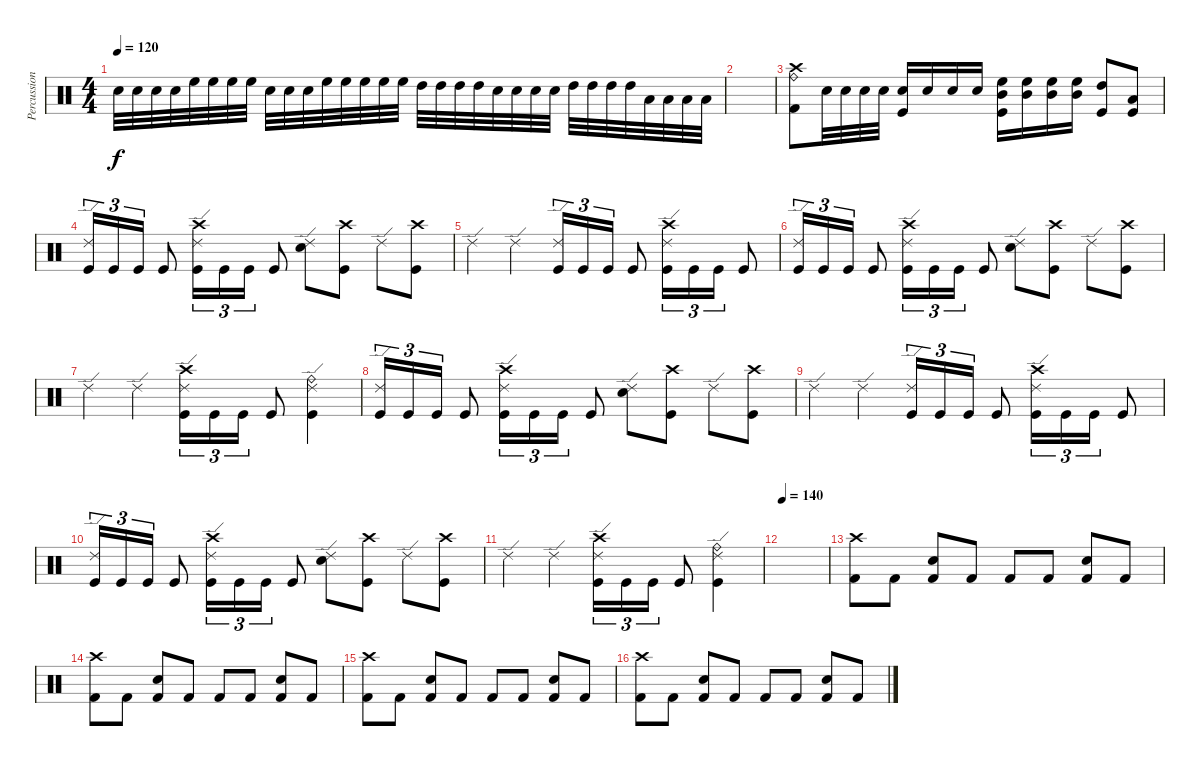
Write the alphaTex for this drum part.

\track ("Percussion" "Percussion") {instrument percussion}
\staff {score}
\articulation defaults
\ts (4 4)
\tempo 120
\clef neutral
\ks c "Snare (hit) 2".32{dy f} "Snare (hit) 2".32 "Snare (hit) 2".32 "Snare (hit) 2".32 "High Floor Tom (hit)".32 "High Floor Tom (hit)".32 "High Floor Tom (hit)".32 "High Floor Tom (hit)".32 "Snare (hit) 2".32 "Snare (hit) 2".32 "Snare (hit) 2".32 "High Floor Tom (hit)".32 "High Floor Tom (hit)".32 "High Floor Tom (hit)".32 "High Floor Tom (hit)".32 "High Floor Tom (hit)".32 "High Tom (hit)".32 "High Tom (hit)".32 "High Tom (hit)".32 "High Tom (hit)".32 "Snare (hit) 2".32 "Snare (hit) 2".32 "Snare (hit) 2".32 "Snare (hit) 2".32 "High Tom (hit)".32 "High Tom (hit)".32 "High Tom (hit)".32 "High Tom (hit)".32 "Low Tom (hit)".32 "Low Tom (hit)".32 "Low Tom (hit)".32 "Low Tom (hit)".32
|
|
("Crash high (hit)" "Kick (hit) 2" "Ride (bell)").8 "Snare (hit) 2".32 "Snare (hit) 2".32 "Snare (hit) 2".32 "Snare (hit) 2".32 ("Snare (hit) 2" "Kick (hit)").16 "Snare (hit) 2".16 "Snare (hit) 2".16 "Snare (hit) 2".16 ("High Floor Tom (hit)" "Mid Tom (hit)" "Kick (hit)").16 ("High Floor Tom (hit)" "Mid Tom (hit)").16 ("High Floor Tom (hit)" "Mid Tom (hit)").16 ("High Floor Tom (hit)" "Mid Tom (hit)").16 ("High Tom (hit)" "Kick (hit)").8 ("Low Tom (hit)" "Kick (hit)").8 |
("Ride (edge) 2" "Kick (hit)").16{tu (3 2)} "Kick (hit)".16{tu (3 2)} "Kick (hit)".16{tu (3 2)} "Kick (hit)".8 ("Crash high (hit)" "Ride (edge) 2" "Kick (hit)").16{tu (3 2)} "Kick (hit)".16{tu (3 2)} "Kick (hit)".16{tu (3 2)} "Kick (hit)".8 ("Ride (edge) 2" "Snare (hit) 2").8 ("Crash high (hit)" "Kick (hit)").8 "Ride (edge) 2".8 ("Crash high (hit)" "Kick (hit)").8 |
"Ride (edge) 2".4 "Ride (edge) 2".4 ("Ride (edge) 2" "Kick (hit)").16{tu (3 2)} "Kick (hit)".16{tu (3 2)} "Kick (hit)".16{tu (3 2)} "Kick (hit)".8 ("Crash high (hit)" "Ride (edge) 2" "Kick (hit)").16{tu (3 2)} "Kick (hit)".16{tu (3 2)} "Kick (hit)".16{tu (3 2)} "Kick (hit)".8 |
("Ride (edge) 2" "Kick (hit)").16{tu (3 2)} "Kick (hit)".16{tu (3 2)} "Kick (hit)".16{tu (3 2)} "Kick (hit)".8 ("Crash high (hit)" "Ride (edge) 2" "Kick (hit)").16{tu (3 2)} "Kick (hit)".16{tu (3 2)} "Kick (hit)".16{tu (3 2)} "Kick (hit)".8 ("Ride (edge) 2" "Snare (hit) 2").8 ("Crash high (hit)" "Kick (hit)").8 "Ride (edge) 2".8 ("Crash high (hit)" "Kick (hit)").8 |
"Ride (edge) 2".4 "Ride (edge) 2".4 ("Crash high (hit)" "Ride (edge) 2" "Kick (hit)").16{tu (3 2)} "Kick (hit)".16{tu (3 2)} "Kick (hit)".16{tu (3 2)} "Kick (hit)".8 ("Ride (bell)" "Ride (edge) 2" "Kick (hit)").4 |
("Ride (edge) 2" "Kick (hit)").16{tu (3 2)} "Kick (hit)".16{tu (3 2)} "Kick (hit)".16{tu (3 2)} "Kick (hit)".8 ("Crash high (hit)" "Ride (edge) 2" "Kick (hit)").16{tu (3 2)} "Kick (hit)".16{tu (3 2)} "Kick (hit)".16{tu (3 2)} "Kick (hit)".8 ("Ride (edge) 2" "Snare (hit) 2").8 ("Crash high (hit)" "Kick (hit)").8 "Ride (edge) 2".8 ("Crash high (hit)" "Kick (hit)").8 |
"Ride (edge) 2".4 "Ride (edge) 2".4 ("Ride (edge) 2" "Kick (hit)").16{tu (3 2)} "Kick (hit)".16{tu (3 2)} "Kick (hit)".16{tu (3 2)} "Kick (hit)".8 ("Crash high (hit)" "Ride (edge) 2" "Kick (hit)").16{tu (3 2)} "Kick (hit)".16{tu (3 2)} "Kick (hit)".16{tu (3 2)} "Kick (hit)".8 |
("Ride (edge) 2" "Kick (hit)").16{tu (3 2)} "Kick (hit)".16{tu (3 2)} "Kick (hit)".16{tu (3 2)} "Kick (hit)".8 ("Crash high (hit)" "Ride (edge) 2" "Kick (hit)").16{tu (3 2)} "Kick (hit)".16{tu (3 2)} "Kick (hit)".16{tu (3 2)} "Kick (hit)".8 ("Ride (edge) 2" "Snare (hit) 2").8 ("Crash high (hit)" "Kick (hit)").8 "Ride (edge) 2".8 ("Crash high (hit)" "Kick (hit)").8 |
"Ride (edge) 2".4 "Ride (edge) 2".4 ("Crash high (hit)" "Ride (edge) 2" "Kick (hit)").16{tu (3 2)} "Kick (hit)".16{tu (3 2)} "Kick (hit)".16{tu (3 2)} "Kick (hit)".8 ("Ride (bell)" "Ride (edge) 2" "Kick (hit)").4 |
\tempo 140
|
("Crash high (hit)" "Kick (hit) 2").8 "Kick (hit) 2".8 ("Snare (hit) 2" "Kick (hit) 2").8 "Kick (hit) 2".8 "Kick (hit) 2".8 "Kick (hit) 2".8 ("Snare (hit) 2" "Kick (hit) 2").8 "Kick (hit) 2".8 |
("Crash high (hit)" "Kick (hit) 2").8 "Kick (hit) 2".8 ("Snare (hit) 2" "Kick (hit) 2").8 "Kick (hit) 2".8 "Kick (hit) 2".8 "Kick (hit) 2".8 ("Snare (hit) 2" "Kick (hit) 2").8 "Kick (hit) 2".8 |
("Crash high (hit)" "Kick (hit) 2").8 "Kick (hit) 2".8 ("Snare (hit) 2" "Kick (hit) 2").8 "Kick (hit) 2".8 "Kick (hit) 2".8 "Kick (hit) 2".8 ("Snare (hit) 2" "Kick (hit) 2").8 "Kick (hit) 2".8 |
("Crash high (hit)" "Kick (hit) 2").8 "Kick (hit) 2".8 ("Snare (hit) 2" "Kick (hit) 2").8 "Kick (hit) 2".8 "Kick (hit) 2".8 "Kick (hit) 2".8 ("Snare (hit) 2" "Kick (hit) 2").8 "Kick (hit) 2".8
